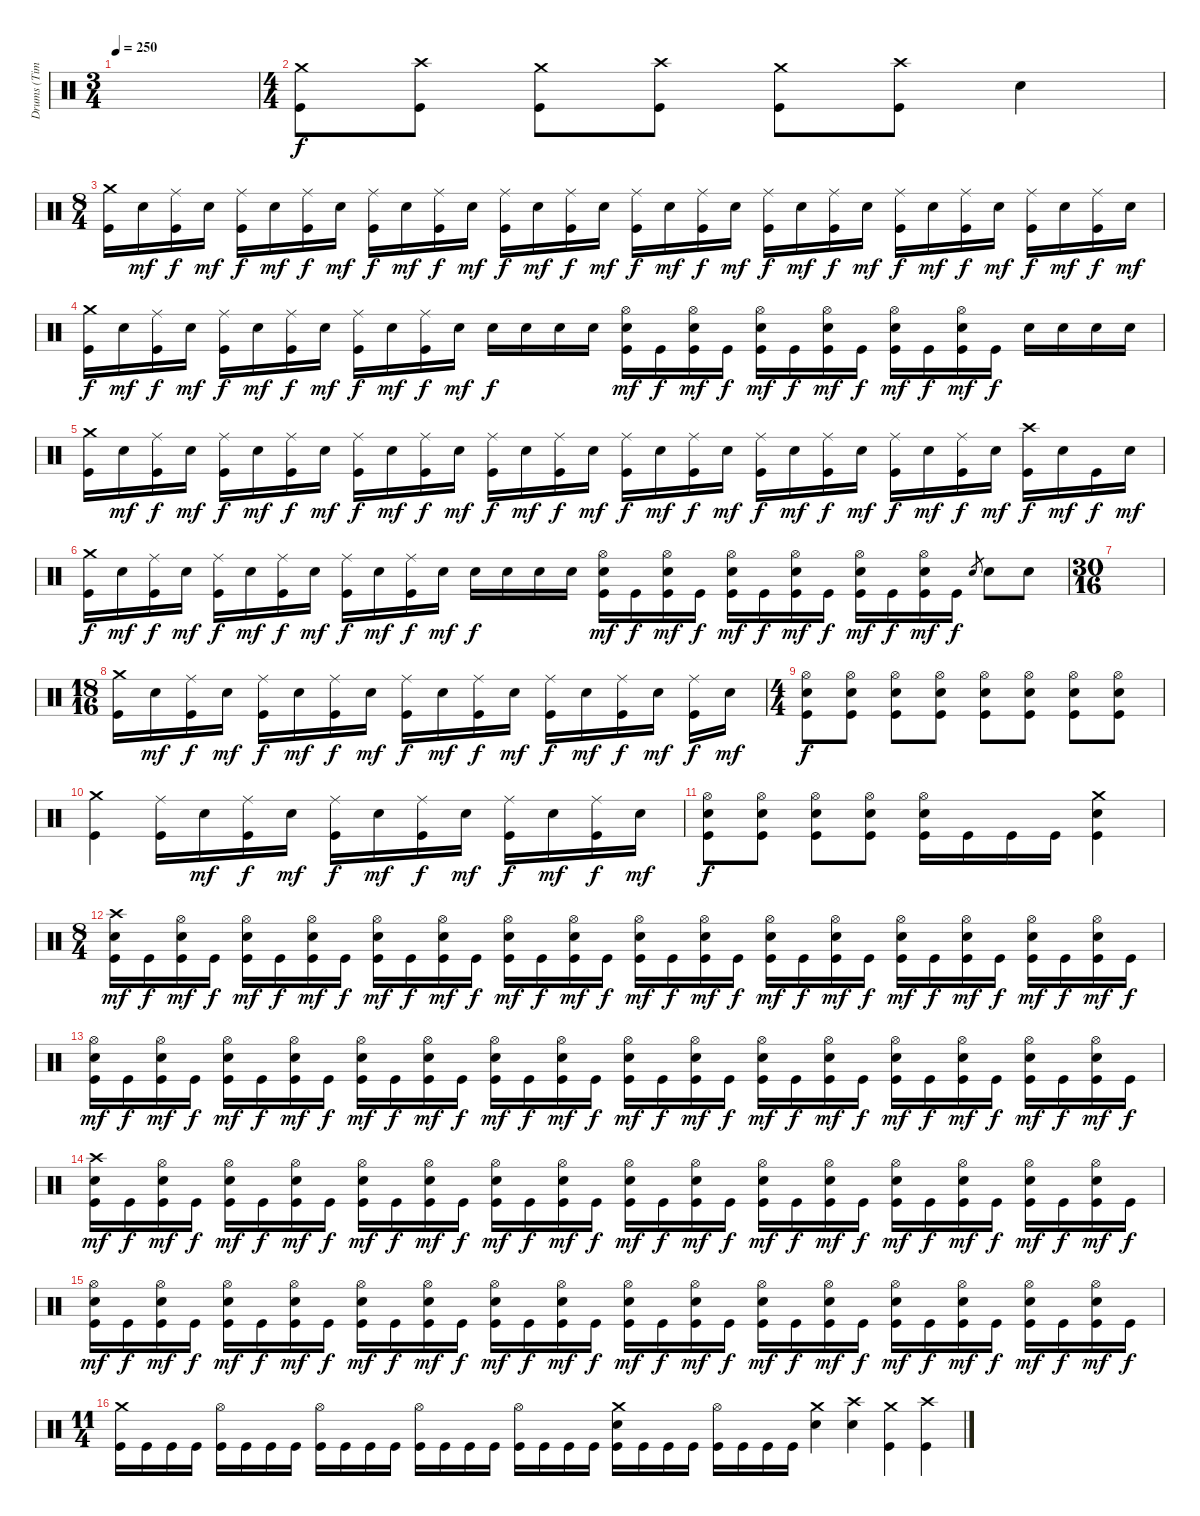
\track ("Drums (Tim Yeung)" "Drums (Tim") {instrument percussion}
\staff {score}
\articulation defaults
\ts (3 4)
\tempo 250
\clef neutral
\ks c
|
\ts (4 4)
("Crash medium (hit)" "Kick (hit)").8 ("Crash high (hit)" "Kick (hit)").8 ("Crash medium (hit)" "Kick (hit)").8 ("Crash high (hit)" "Kick (hit)").8 ("Crash medium (hit)" "Kick (hit)").8 ("Crash high (hit)" "Kick (hit)").8 "Electric Snare (hit)".4 |
\ts (8 4)
("Crash medium (hit)" "Kick (hit)").16 "Electric Snare (hit)".16{dy mf} ("Ride (middle)" "Kick (hit)").16{dy f} "Electric Snare (hit)".16{dy mf} ("Ride (middle)" "Kick (hit)").16{dy f} "Electric Snare (hit)".16{dy mf} ("Ride (middle)" "Kick (hit)").16{dy f} "Electric Snare (hit)".16{dy mf} ("Ride (middle)" "Kick (hit)").16{dy f} "Electric Snare (hit)".16{dy mf} ("Ride (middle)" "Kick (hit)").16{dy f} "Electric Snare (hit)".16{dy mf} ("Ride (middle)" "Kick (hit)").16{dy f} "Electric Snare (hit)".16{dy mf} ("Ride (middle)" "Kick (hit)").16{dy f} "Electric Snare (hit)".16{dy mf} ("Ride (middle)" "Kick (hit)").16{dy f} "Electric Snare (hit)".16{dy mf} ("Ride (middle)" "Kick (hit)").16{dy f} "Electric Snare (hit)".16{dy mf} ("Ride (middle)" "Kick (hit)").16{dy f} "Electric Snare (hit)".16{dy mf} ("Ride (middle)" "Kick (hit)").16{dy f} "Electric Snare (hit)".16{dy mf} ("Ride (middle)" "Kick (hit)").16{dy f} "Electric Snare (hit)".16{dy mf} ("Ride (middle)" "Kick (hit)").16{dy f} "Electric Snare (hit)".16{dy mf} ("Ride (middle)" "Kick (hit)").16{dy f} "Electric Snare (hit)".16{dy mf} ("Ride (middle)" "Kick (hit)").16{dy f} "Electric Snare (hit)".16{dy mf} |
("Crash medium (hit)" "Kick (hit)").16{dy f} "Electric Snare (hit)".16{dy mf} ("Ride (middle)" "Kick (hit)").16{dy f} "Electric Snare (hit)".16{dy mf} ("Ride (middle)" "Kick (hit)").16{dy f} "Electric Snare (hit)".16{dy mf} ("Ride (middle)" "Kick (hit)").16{dy f} "Electric Snare (hit)".16{dy mf} ("Ride (middle)" "Kick (hit)").16{dy f} "Electric Snare (hit)".16{dy mf} ("Ride (middle)" "Kick (hit)").16{dy f} "Electric Snare (hit)".16{dy mf} "Electric Snare (hit)".16{dy f} "Electric Snare (hit)".16 "Electric Snare (hit)".16 "Electric Snare (hit)".16 ("Hi-Hat (open)" "Electric Snare (hit)" "Kick (hit)").16{dy mf} "Kick (hit)".16{dy f} ("Hi-Hat (open)" "Electric Snare (hit)" "Kick (hit)").16{dy mf} "Kick (hit)".16{dy f} ("Hi-Hat (open)" "Electric Snare (hit)" "Kick (hit)").16{dy mf} "Kick (hit)".16{dy f} ("Hi-Hat (open)" "Electric Snare (hit)" "Kick (hit)").16{dy mf} "Kick (hit)".16{dy f} ("Hi-Hat (open)" "Electric Snare (hit)" "Kick (hit)").16{dy mf} "Kick (hit)".16{dy f} ("Hi-Hat (open)" "Electric Snare (hit)" "Kick (hit)").16{dy mf} "Kick (hit)".16{dy f} "Electric Snare (hit)".16 "Electric Snare (hit)".16 "Electric Snare (hit)".16 "Electric Snare (hit)".16 |
("Crash medium (hit)" "Kick (hit)").16 "Electric Snare (hit)".16{dy mf} ("Ride (middle)" "Kick (hit)").16{dy f} "Electric Snare (hit)".16{dy mf} ("Ride (middle)" "Kick (hit)").16{dy f} "Electric Snare (hit)".16{dy mf} ("Ride (middle)" "Kick (hit)").16{dy f} "Electric Snare (hit)".16{dy mf} ("Ride (middle)" "Kick (hit)").16{dy f} "Electric Snare (hit)".16{dy mf} ("Ride (middle)" "Kick (hit)").16{dy f} "Electric Snare (hit)".16{dy mf} ("Ride (middle)" "Kick (hit)").16{dy f} "Electric Snare (hit)".16{dy mf} ("Ride (middle)" "Kick (hit)").16{dy f} "Electric Snare (hit)".16{dy mf} ("Ride (middle)" "Kick (hit)").16{dy f} "Electric Snare (hit)".16{dy mf} ("Ride (middle)" "Kick (hit)").16{dy f} "Electric Snare (hit)".16{dy mf} ("Ride (middle)" "Kick (hit)").16{dy f} "Electric Snare (hit)".16{dy mf} ("Ride (middle)" "Kick (hit)").16{dy f} "Electric Snare (hit)".16{dy mf} ("Ride (middle)" "Kick (hit)").16{dy f} "Electric Snare (hit)".16{dy mf} ("Ride (middle)" "Kick (hit)").16{dy f} "Electric Snare (hit)".16{dy mf} ("Crash high (hit)" "Kick (hit)").16{dy f} "Electric Snare (hit)".16{dy mf} "Kick (hit)".16{dy f} "Electric Snare (hit)".16{dy mf} |
("Crash medium (hit)" "Kick (hit)").16{dy f} "Electric Snare (hit)".16{dy mf} ("Ride (middle)" "Kick (hit)").16{dy f} "Electric Snare (hit)".16{dy mf} ("Ride (middle)" "Kick (hit)").16{dy f} "Electric Snare (hit)".16{dy mf} ("Ride (middle)" "Kick (hit)").16{dy f} "Electric Snare (hit)".16{dy mf} ("Ride (middle)" "Kick (hit)").16{dy f} "Electric Snare (hit)".16{dy mf} ("Ride (middle)" "Kick (hit)").16{dy f} "Electric Snare (hit)".16{dy mf} "Electric Snare (hit)".16{dy f} "Electric Snare (hit)".16 "Electric Snare (hit)".16 "Electric Snare (hit)".16 ("Hi-Hat (open)" "Electric Snare (hit)" "Kick (hit)").16{dy mf} "Kick (hit)".16{dy f} ("Hi-Hat (open)" "Electric Snare (hit)" "Kick (hit)").16{dy mf} "Kick (hit)".16{dy f} ("Hi-Hat (open)" "Electric Snare (hit)" "Kick (hit)").16{dy mf} "Kick (hit)".16{dy f} ("Hi-Hat (open)" "Electric Snare (hit)" "Kick (hit)").16{dy mf} "Kick (hit)".16{dy f} ("Hi-Hat (open)" "Electric Snare (hit)" "Kick (hit)").16{dy mf} "Kick (hit)".16{dy f} ("Hi-Hat (open)" "Electric Snare (hit)" "Kick (hit)").16{dy mf} "Kick (hit)".16{dy f} "Electric Snare (hit)".8{gr} "Electric Snare (hit)".8 "Electric Snare (hit)".8 |
\ts (30 16)
|
\ts (18 16)
("Crash medium (hit)" "Kick (hit)").16 "Electric Snare (hit)".16{dy mf} ("Ride (middle)" "Kick (hit)").16{dy f} "Electric Snare (hit)".16{dy mf} ("Ride (middle)" "Kick (hit)").16{dy f} "Electric Snare (hit)".16{dy mf} ("Ride (middle)" "Kick (hit)").16{dy f} "Electric Snare (hit)".16{dy mf} ("Ride (middle)" "Kick (hit)").16{dy f} "Electric Snare (hit)".16{dy mf} ("Ride (middle)" "Kick (hit)").16{dy f} "Electric Snare (hit)".16{dy mf} ("Ride (middle)" "Kick (hit)").16{dy f} "Electric Snare (hit)".16{dy mf} ("Ride (middle)" "Kick (hit)").16{dy f} "Electric Snare (hit)".16{dy mf} ("Ride (middle)" "Kick (hit)").16{dy f} "Electric Snare (hit)".16{dy mf} |
\ts (4 4)
("Hi-Hat (open)" "Electric Snare (hit)" "Kick (hit)").8{dy f} ("Hi-Hat (open)" "Electric Snare (hit)" "Kick (hit)").8 ("Hi-Hat (open)" "Electric Snare (hit)" "Kick (hit)").8 ("Hi-Hat (open)" "Electric Snare (hit)" "Kick (hit)").8 ("Hi-Hat (open)" "Electric Snare (hit)" "Kick (hit)").8 ("Hi-Hat (open)" "Electric Snare (hit)" "Kick (hit)").8 ("Hi-Hat (open)" "Electric Snare (hit)" "Kick (hit)").8 ("Hi-Hat (open)" "Electric Snare (hit)" "Kick (hit)").8 |
("Crash medium (hit)" "Kick (hit)").4 ("Ride (middle)" "Kick (hit)").16 "Electric Snare (hit)".16{dy mf} ("Ride (middle)" "Kick (hit)").16{dy f} "Electric Snare (hit)".16{dy mf} ("Ride (middle)" "Kick (hit)").16{dy f} "Electric Snare (hit)".16{dy mf} ("Ride (middle)" "Kick (hit)").16{dy f} "Electric Snare (hit)".16{dy mf} ("Ride (middle)" "Kick (hit)").16{dy f} "Electric Snare (hit)".16{dy mf} ("Ride (middle)" "Kick (hit)").16{dy f} "Electric Snare (hit)".16{dy mf} |
("Hi-Hat (open)" "Electric Snare (hit)" "Kick (hit)").8{dy f} ("Hi-Hat (open)" "Electric Snare (hit)" "Kick (hit)").8 ("Hi-Hat (open)" "Electric Snare (hit)" "Kick (hit)").8 ("Hi-Hat (open)" "Electric Snare (hit)" "Kick (hit)").8 ("Hi-Hat (open)" "Electric Snare (hit)" "Kick (hit)").16 "Kick (hit)".16 "Kick (hit)".16 "Kick (hit)".16 ("Crash medium (hit)" "Electric Snare (hit)" "Kick (hit)").4 |
\ts (8 4)
("Crash high (hit)" "Electric Snare (hit)" "Kick (hit)").16{dy mf} "Kick (hit)".16{dy f} ("Hi-Hat (open)" "Electric Snare (hit)" "Kick (hit)").16{dy mf} "Kick (hit)".16{dy f} ("Hi-Hat (open)" "Electric Snare (hit)" "Kick (hit)").16{dy mf} "Kick (hit)".16{dy f} ("Hi-Hat (open)" "Electric Snare (hit)" "Kick (hit)").16{dy mf} "Kick (hit)".16{dy f} ("Hi-Hat (open)" "Electric Snare (hit)" "Kick (hit)").16{dy mf} "Kick (hit)".16{dy f} ("Hi-Hat (open)" "Electric Snare (hit)" "Kick (hit)").16{dy mf} "Kick (hit)".16{dy f} ("Hi-Hat (open)" "Electric Snare (hit)" "Kick (hit)").16{dy mf} "Kick (hit)".16{dy f} ("Hi-Hat (open)" "Electric Snare (hit)" "Kick (hit)").16{dy mf} "Kick (hit)".16{dy f} ("Hi-Hat (open)" "Electric Snare (hit)" "Kick (hit)").16{dy mf} "Kick (hit)".16{dy f} ("Hi-Hat (open)" "Electric Snare (hit)" "Kick (hit)").16{dy mf} "Kick (hit)".16{dy f} ("Hi-Hat (open)" "Electric Snare (hit)" "Kick (hit)").16{dy mf} "Kick (hit)".16{dy f} ("Hi-Hat (open)" "Electric Snare (hit)" "Kick (hit)").16{dy mf} "Kick (hit)".16{dy f} ("Hi-Hat (open)" "Electric Snare (hit)" "Kick (hit)").16{dy mf} "Kick (hit)".16{dy f} ("Hi-Hat (open)" "Electric Snare (hit)" "Kick (hit)").16{dy mf} "Kick (hit)".16{dy f} ("Hi-Hat (open)" "Electric Snare (hit)" "Kick (hit)").16{dy mf} "Kick (hit)".16{dy f} ("Hi-Hat (open)" "Electric Snare (hit)" "Kick (hit)").16{dy mf} "Kick (hit)".16{dy f} |
("Hi-Hat (open)" "Electric Snare (hit)" "Kick (hit)").16{dy mf} "Kick (hit)".16{dy f} ("Hi-Hat (open)" "Electric Snare (hit)" "Kick (hit)").16{dy mf} "Kick (hit)".16{dy f} ("Hi-Hat (open)" "Electric Snare (hit)" "Kick (hit)").16{dy mf} "Kick (hit)".16{dy f} ("Hi-Hat (open)" "Electric Snare (hit)" "Kick (hit)").16{dy mf} "Kick (hit)".16{dy f} ("Hi-Hat (open)" "Electric Snare (hit)" "Kick (hit)").16{dy mf} "Kick (hit)".16{dy f} ("Hi-Hat (open)" "Electric Snare (hit)" "Kick (hit)").16{dy mf} "Kick (hit)".16{dy f} ("Hi-Hat (open)" "Electric Snare (hit)" "Kick (hit)").16{dy mf} "Kick (hit)".16{dy f} ("Hi-Hat (open)" "Electric Snare (hit)" "Kick (hit)").16{dy mf} "Kick (hit)".16{dy f} ("Hi-Hat (open)" "Electric Snare (hit)" "Kick (hit)").16{dy mf} "Kick (hit)".16{dy f} ("Hi-Hat (open)" "Electric Snare (hit)" "Kick (hit)").16{dy mf} "Kick (hit)".16{dy f} ("Hi-Hat (open)" "Electric Snare (hit)" "Kick (hit)").16{dy mf} "Kick (hit)".16{dy f} ("Hi-Hat (open)" "Electric Snare (hit)" "Kick (hit)").16{dy mf} "Kick (hit)".16{dy f} ("Hi-Hat (open)" "Electric Snare (hit)" "Kick (hit)").16{dy mf} "Kick (hit)".16{dy f} ("Hi-Hat (open)" "Electric Snare (hit)" "Kick (hit)").16{dy mf} "Kick (hit)".16{dy f} ("Hi-Hat (open)" "Electric Snare (hit)" "Kick (hit)").16{dy mf} "Kick (hit)".16{dy f} ("Hi-Hat (open)" "Electric Snare (hit)" "Kick (hit)").16{dy mf} "Kick (hit)".16{dy f} |
("Crash high (hit)" "Electric Snare (hit)" "Kick (hit)").16{dy mf} "Kick (hit)".16{dy f} ("Hi-Hat (open)" "Electric Snare (hit)" "Kick (hit)").16{dy mf} "Kick (hit)".16{dy f} ("Hi-Hat (open)" "Electric Snare (hit)" "Kick (hit)").16{dy mf} "Kick (hit)".16{dy f} ("Hi-Hat (open)" "Electric Snare (hit)" "Kick (hit)").16{dy mf} "Kick (hit)".16{dy f} ("Hi-Hat (open)" "Electric Snare (hit)" "Kick (hit)").16{dy mf} "Kick (hit)".16{dy f} ("Hi-Hat (open)" "Electric Snare (hit)" "Kick (hit)").16{dy mf} "Kick (hit)".16{dy f} ("Hi-Hat (open)" "Electric Snare (hit)" "Kick (hit)").16{dy mf} "Kick (hit)".16{dy f} ("Hi-Hat (open)" "Electric Snare (hit)" "Kick (hit)").16{dy mf} "Kick (hit)".16{dy f} ("Hi-Hat (open)" "Electric Snare (hit)" "Kick (hit)").16{dy mf} "Kick (hit)".16{dy f} ("Hi-Hat (open)" "Electric Snare (hit)" "Kick (hit)").16{dy mf} "Kick (hit)".16{dy f} ("Hi-Hat (open)" "Electric Snare (hit)" "Kick (hit)").16{dy mf} "Kick (hit)".16{dy f} ("Hi-Hat (open)" "Electric Snare (hit)" "Kick (hit)").16{dy mf} "Kick (hit)".16{dy f} ("Hi-Hat (open)" "Electric Snare (hit)" "Kick (hit)").16{dy mf} "Kick (hit)".16{dy f} ("Hi-Hat (open)" "Electric Snare (hit)" "Kick (hit)").16{dy mf} "Kick (hit)".16{dy f} ("Hi-Hat (open)" "Electric Snare (hit)" "Kick (hit)").16{dy mf} "Kick (hit)".16{dy f} ("Hi-Hat (open)" "Electric Snare (hit)" "Kick (hit)").16{dy mf} "Kick (hit)".16{dy f} |
("Hi-Hat (open)" "Electric Snare (hit)" "Kick (hit)").16{dy mf} "Kick (hit)".16{dy f} ("Hi-Hat (open)" "Electric Snare (hit)" "Kick (hit)").16{dy mf} "Kick (hit)".16{dy f} ("Hi-Hat (open)" "Electric Snare (hit)" "Kick (hit)").16{dy mf} "Kick (hit)".16{dy f} ("Hi-Hat (open)" "Electric Snare (hit)" "Kick (hit)").16{dy mf} "Kick (hit)".16{dy f} ("Hi-Hat (open)" "Electric Snare (hit)" "Kick (hit)").16{dy mf} "Kick (hit)".16{dy f} ("Hi-Hat (open)" "Electric Snare (hit)" "Kick (hit)").16{dy mf} "Kick (hit)".16{dy f} ("Hi-Hat (open)" "Electric Snare (hit)" "Kick (hit)").16{dy mf} "Kick (hit)".16{dy f} ("Hi-Hat (open)" "Electric Snare (hit)" "Kick (hit)").16{dy mf} "Kick (hit)".16{dy f} ("Hi-Hat (open)" "Electric Snare (hit)" "Kick (hit)").16{dy mf} "Kick (hit)".16{dy f} ("Hi-Hat (open)" "Electric Snare (hit)" "Kick (hit)").16{dy mf} "Kick (hit)".16{dy f} ("Hi-Hat (open)" "Electric Snare (hit)" "Kick (hit)").16{dy mf} "Kick (hit)".16{dy f} ("Hi-Hat (open)" "Electric Snare (hit)" "Kick (hit)").16{dy mf} "Kick (hit)".16{dy f} ("Hi-Hat (open)" "Electric Snare (hit)" "Kick (hit)").16{dy mf} "Kick (hit)".16{dy f} ("Hi-Hat (open)" "Electric Snare (hit)" "Kick (hit)").16{dy mf} "Kick (hit)".16{dy f} ("Hi-Hat (open)" "Electric Snare (hit)" "Kick (hit)").16{dy mf} "Kick (hit)".16{dy f} ("Hi-Hat (open)" "Electric Snare (hit)" "Kick (hit)").16{dy mf} "Kick (hit)".16{dy f} |
\ts (11 4)
("Crash medium (hit)" "Kick (hit)").16 "Kick (hit)".16 "Kick (hit)".16 "Kick (hit)".16 ("Hi-Hat (open)" "Kick (hit)").16 "Kick (hit)".16 "Kick (hit)".16 "Kick (hit)".16 ("Hi-Hat (open)" "Kick (hit)").16 "Kick (hit)".16 "Kick (hit)".16 "Kick (hit)".16 ("Hi-Hat (open)" "Kick (hit)").16 "Kick (hit)".16 "Kick (hit)".16 "Kick (hit)".16 ("Hi-Hat (open)" "Kick (hit)").16 "Kick (hit)".16 "Kick (hit)".16 "Kick (hit)".16 ("Crash medium (hit)" "Electric Snare (hit)" "Kick (hit)").16 "Kick (hit)".16 "Kick (hit)".16 "Kick (hit)".16 ("Hi-Hat (open)" "Kick (hit)").16 "Kick (hit)".16 "Kick (hit)".16 "Kick (hit)".16 ("Crash medium (hit)" "Electric Snare (hit)").4 ("Crash high (hit)" "Electric Snare (hit)").4 ("Crash medium (hit)" "Kick (hit)").4 ("Crash high (hit)" "Kick (hit)").4
